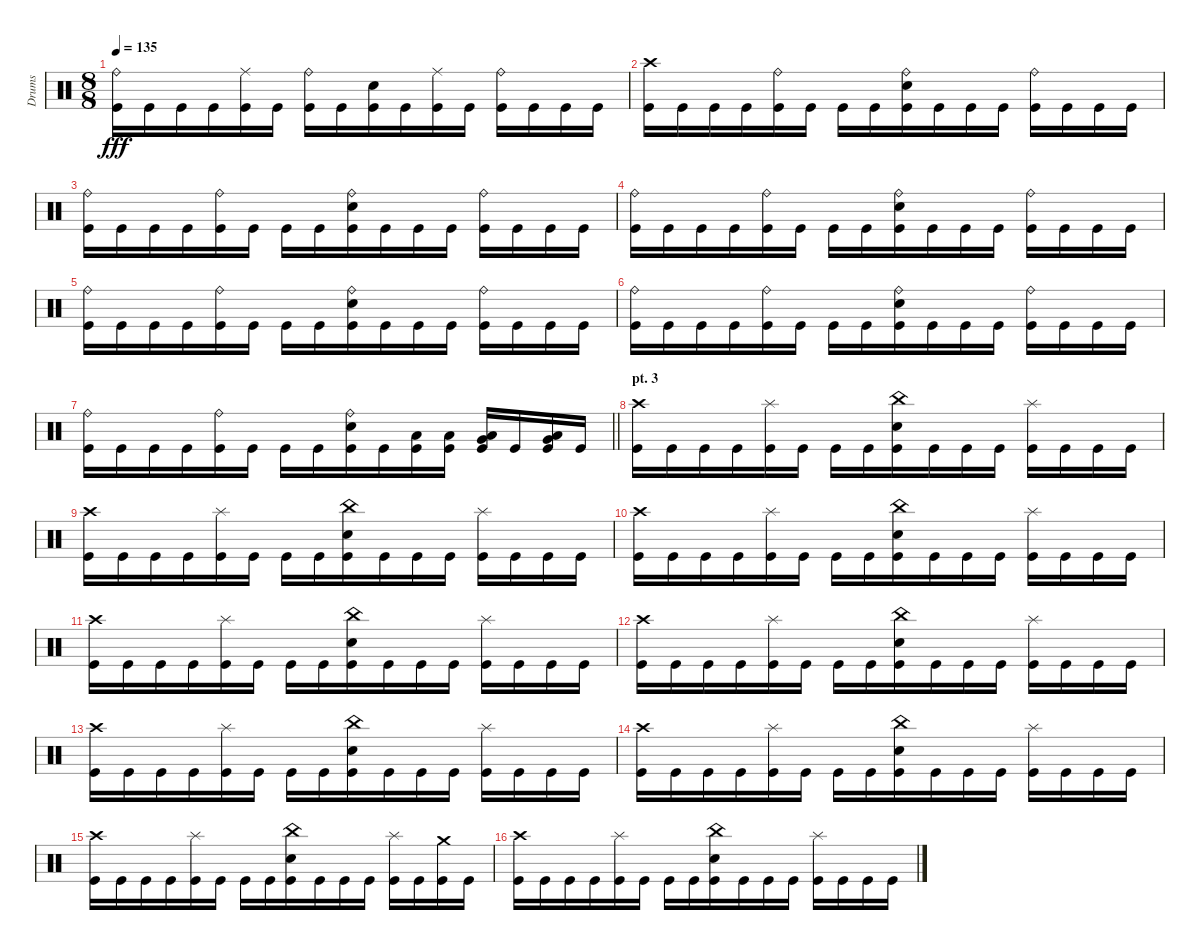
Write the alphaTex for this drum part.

\track ("Drums" "Drums") {instrument percussion}
\staff
\articulation defaults
\ts (8 8)
\tempo 135
\clef neutral
\ks c
("Ride (bell)" "Kick (hit)").16{dy fff} "Kick (hit)".16 "Kick (hit)".16 "Kick (hit)".16 ("Ride (middle)" "Kick (hit)").16 "Kick (hit)".16 ("Ride (bell)" "Kick (hit)").16 "Kick (hit)".16 ("Snare (hit) 2" "Kick (hit)").16 "Kick (hit)".16 ("Ride (middle)" "Kick (hit)").16 "Kick (hit)".16 ("Ride (bell)" "Kick (hit)").16 "Kick (hit)".16 "Kick (hit)".16 "Kick (hit)".16 |
("Crash high (hit)" "Kick (hit)").16 "Kick (hit)".16 "Kick (hit)".16 "Kick (hit)".16 ("Ride (bell)" "Kick (hit)").16 "Kick (hit)".16 "Kick (hit)".16 "Kick (hit)".16 ("Ride (bell)" "Snare (hit) 2" "Kick (hit)").16 "Kick (hit)".16 "Kick (hit)".16 "Kick (hit)".16 ("Ride (bell)" "Kick (hit)").16 "Kick (hit)".16 "Kick (hit)".16 "Kick (hit)".16 |
("Ride (bell)" "Kick (hit)").16 "Kick (hit)".16 "Kick (hit)".16 "Kick (hit)".16 ("Ride (bell)" "Kick (hit)").16 "Kick (hit)".16 "Kick (hit)".16 "Kick (hit)".16 ("Ride (bell)" "Snare (hit) 2" "Kick (hit)").16 "Kick (hit)".16 "Kick (hit)".16 "Kick (hit)".16 ("Ride (bell)" "Kick (hit)").16 "Kick (hit)".16 "Kick (hit)".16 "Kick (hit)".16 |
("Ride (bell)" "Kick (hit)").16 "Kick (hit)".16 "Kick (hit)".16 "Kick (hit)".16 ("Ride (bell)" "Kick (hit)").16 "Kick (hit)".16 "Kick (hit)".16 "Kick (hit)".16 ("Ride (bell)" "Snare (hit) 2" "Kick (hit)").16 "Kick (hit)".16 "Kick (hit)".16 "Kick (hit)".16 ("Ride (bell)" "Kick (hit)").16 "Kick (hit)".16 "Kick (hit)".16 "Kick (hit)".16 |
("Ride (bell)" "Kick (hit)").16 "Kick (hit)".16 "Kick (hit)".16 "Kick (hit)".16 ("Ride (bell)" "Kick (hit)").16 "Kick (hit)".16 "Kick (hit)".16 "Kick (hit)".16 ("Ride (bell)" "Snare (hit) 2" "Kick (hit)").16 "Kick (hit)".16 "Kick (hit)".16 "Kick (hit)".16 ("Ride (bell)" "Kick (hit)").16 "Kick (hit)".16 "Kick (hit)".16 "Kick (hit)".16 |
("Ride (bell)" "Kick (hit)").16 "Kick (hit)".16 "Kick (hit)".16 "Kick (hit)".16 ("Ride (bell)" "Kick (hit)").16 "Kick (hit)".16 "Kick (hit)".16 "Kick (hit)".16 ("Ride (bell)" "Snare (hit) 2" "Kick (hit)").16 "Kick (hit)".16 "Kick (hit)".16 "Kick (hit)".16 ("Ride (bell)" "Kick (hit)").16 "Kick (hit)".16 "Kick (hit)".16 "Kick (hit)".16 |
\barLineRight lightlight
("Ride (bell)" "Kick (hit)").16 "Kick (hit)".16 "Kick (hit)".16 "Kick (hit)".16 ("Ride (bell)" "Kick (hit)").16 "Kick (hit)".16 "Kick (hit)".16 "Kick (hit)".16 ("Ride (bell)" "Snare (hit) 2" "Kick (hit)").16 "Kick (hit)".16 ("Low Tom (hit)" "Kick (hit)").16 ("Low Tom (hit)" "Kick (hit)").16 ("Very Low Tom (hit)" "Low Floor Tom (hit)" "Kick (hit)").16 "Kick (hit)".16 ("Very Low Tom (hit)" "Low Floor Tom (hit)" "Kick (hit)").16 "Kick (hit)".16 |
\section ("" "pt. 3")
("Crash high (hit)" "Kick (hit)").16 "Kick (hit)".16 "Kick (hit)".16 "Kick (hit)".16 ("Splash (hit)" "Kick (hit)").16 "Kick (hit)".16 "Kick (hit)".16 "Kick (hit)".16 ("China (hit)" "Snare (hit) 2" "Kick (hit)").16 "Kick (hit)".16 "Kick (hit)".16 "Kick (hit)".16 ("Splash (hit)" "Kick (hit)").16 "Kick (hit)".16 "Kick (hit)".16 "Kick (hit)".16 |
("Crash high (hit)" "Kick (hit)").16 "Kick (hit)".16 "Kick (hit)".16 "Kick (hit)".16 ("Splash (hit)" "Kick (hit)").16 "Kick (hit)".16 "Kick (hit)".16 "Kick (hit)".16 ("China (hit)" "Snare (hit) 2" "Kick (hit)").16 "Kick (hit)".16 "Kick (hit)".16 "Kick (hit)".16 ("Splash (hit)" "Kick (hit)").16 "Kick (hit)".16 "Kick (hit)".16 "Kick (hit)".16 |
("Crash high (hit)" "Kick (hit)").16 "Kick (hit)".16 "Kick (hit)".16 "Kick (hit)".16 ("Splash (hit)" "Kick (hit)").16 "Kick (hit)".16 "Kick (hit)".16 "Kick (hit)".16 ("China (hit)" "Snare (hit) 2" "Kick (hit)").16 "Kick (hit)".16 "Kick (hit)".16 "Kick (hit)".16 ("Splash (hit)" "Kick (hit)").16 "Kick (hit)".16 "Kick (hit)".16 "Kick (hit)".16 |
("Crash high (hit)" "Kick (hit)").16 "Kick (hit)".16 "Kick (hit)".16 "Kick (hit)".16 ("Splash (hit)" "Kick (hit)").16 "Kick (hit)".16 "Kick (hit)".16 "Kick (hit)".16 ("China (hit)" "Snare (hit) 2" "Kick (hit)").16 "Kick (hit)".16 "Kick (hit)".16 "Kick (hit)".16 ("Splash (hit)" "Kick (hit)").16 "Kick (hit)".16 "Kick (hit)".16 "Kick (hit)".16 |
("Crash high (hit)" "Kick (hit)").16 "Kick (hit)".16 "Kick (hit)".16 "Kick (hit)".16 ("Splash (hit)" "Kick (hit)").16 "Kick (hit)".16 "Kick (hit)".16 "Kick (hit)".16 ("China (hit)" "Snare (hit) 2" "Kick (hit)").16 "Kick (hit)".16 "Kick (hit)".16 "Kick (hit)".16 ("Splash (hit)" "Kick (hit)").16 "Kick (hit)".16 "Kick (hit)".16 "Kick (hit)".16 |
("Crash high (hit)" "Kick (hit)").16 "Kick (hit)".16 "Kick (hit)".16 "Kick (hit)".16 ("Splash (hit)" "Kick (hit)").16 "Kick (hit)".16 "Kick (hit)".16 "Kick (hit)".16 ("China (hit)" "Snare (hit) 2" "Kick (hit)").16 "Kick (hit)".16 "Kick (hit)".16 "Kick (hit)".16 ("Splash (hit)" "Kick (hit)").16 "Kick (hit)".16 "Kick (hit)".16 "Kick (hit)".16 |
("Crash high (hit)" "Kick (hit)").16 "Kick (hit)".16 "Kick (hit)".16 "Kick (hit)".16 ("Splash (hit)" "Kick (hit)").16 "Kick (hit)".16 "Kick (hit)".16 "Kick (hit)".16 ("China (hit)" "Snare (hit) 2" "Kick (hit)").16 "Kick (hit)".16 "Kick (hit)".16 "Kick (hit)".16 ("Splash (hit)" "Kick (hit)").16 "Kick (hit)".16 "Kick (hit)".16 "Kick (hit)".16 |
("Crash high (hit)" "Kick (hit)").16 "Kick (hit)".16 "Kick (hit)".16 "Kick (hit)".16 ("Splash (hit)" "Kick (hit)").16 "Kick (hit)".16 "Kick (hit)".16 "Kick (hit)".16 ("China (hit)" "Snare (hit) 2" "Kick (hit)").16 "Kick (hit)".16 "Kick (hit)".16 "Kick (hit)".16 ("Splash (hit)" "Kick (hit)").16 "Kick (hit)".16 ("Crash medium (hit)" "Kick (hit)").16 "Kick (hit)".16 |
("Crash high (hit)" "Kick (hit)").16 "Kick (hit)".16 "Kick (hit)".16 "Kick (hit)".16 ("Splash (hit)" "Kick (hit)").16 "Kick (hit)".16 "Kick (hit)".16 "Kick (hit)".16 ("China (hit)" "Snare (hit) 2" "Kick (hit)").16 "Kick (hit)".16 "Kick (hit)".16 "Kick (hit)".16 ("Splash (hit)" "Kick (hit)").16 "Kick (hit)".16 "Kick (hit)".16 "Kick (hit)".16
